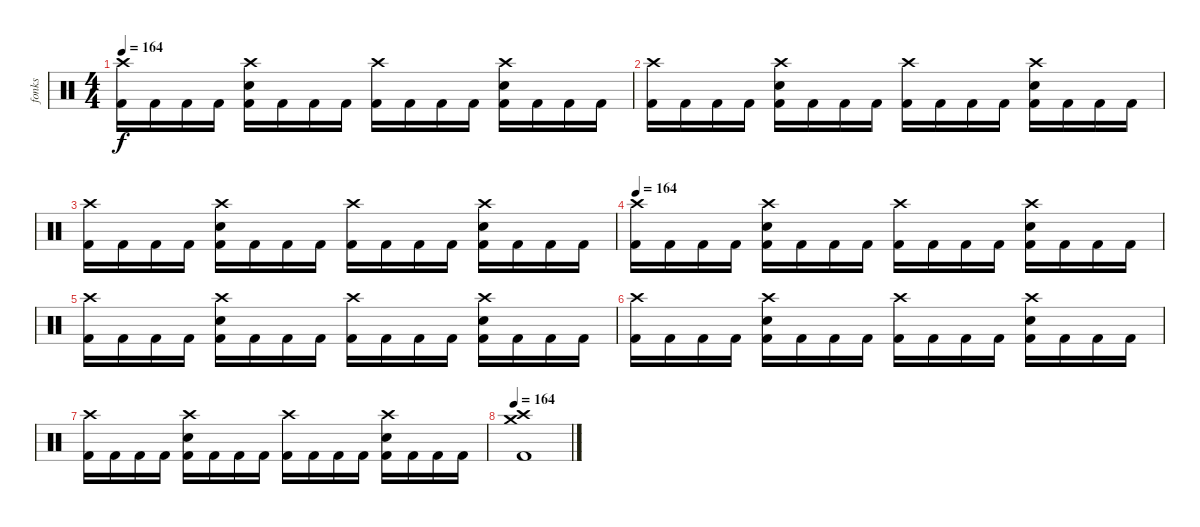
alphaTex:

\track ("fonks" "fonks") {instrument percussion}
\staff {score}
\articulation defaults
\ts (4 4)
\tempo 164
\clef neutral
\ks c
("Crash high (hit)" "Kick (hit) 2").16{dy f} "Kick (hit) 2".16 "Kick (hit) 2".16 "Kick (hit) 2".16 ("Crash high (hit)" "Snare (hit) 2" "Kick (hit) 2").16 "Kick (hit) 2".16 "Kick (hit) 2".16 "Kick (hit) 2".16 ("Crash high (hit)" "Kick (hit) 2").16 "Kick (hit) 2".16 "Kick (hit) 2".16 "Kick (hit) 2".16 ("Crash high (hit)" "Snare (hit) 2" "Kick (hit) 2").16 "Kick (hit) 2".16 "Kick (hit) 2".16 "Kick (hit) 2".16 |
("Crash high (hit)" "Kick (hit) 2").16 "Kick (hit) 2".16 "Kick (hit) 2".16 "Kick (hit) 2".16 ("Crash high (hit)" "Snare (hit) 2" "Kick (hit) 2").16 "Kick (hit) 2".16 "Kick (hit) 2".16 "Kick (hit) 2".16 ("Crash high (hit)" "Kick (hit) 2").16 "Kick (hit) 2".16 "Kick (hit) 2".16 "Kick (hit) 2".16 ("Crash high (hit)" "Snare (hit) 2" "Kick (hit) 2").16 "Kick (hit) 2".16 "Kick (hit) 2".16 "Kick (hit) 2".16 |
("Crash high (hit)" "Kick (hit) 2").16 "Kick (hit) 2".16 "Kick (hit) 2".16 "Kick (hit) 2".16 ("Crash high (hit)" "Snare (hit) 2" "Kick (hit) 2").16 "Kick (hit) 2".16 "Kick (hit) 2".16 "Kick (hit) 2".16 ("Crash high (hit)" "Kick (hit) 2").16 "Kick (hit) 2".16 "Kick (hit) 2".16 "Kick (hit) 2".16 ("Crash high (hit)" "Snare (hit) 2" "Kick (hit) 2").16 "Kick (hit) 2".16 "Kick (hit) 2".16 "Kick (hit) 2".16 |
\tempo 164
("Crash high (hit)" "Kick (hit) 2").16 "Kick (hit) 2".16 "Kick (hit) 2".16 "Kick (hit) 2".16 ("Crash high (hit)" "Snare (hit) 2" "Kick (hit) 2").16 "Kick (hit) 2".16 "Kick (hit) 2".16 "Kick (hit) 2".16 ("Crash high (hit)" "Kick (hit) 2").16 "Kick (hit) 2".16 "Kick (hit) 2".16 "Kick (hit) 2".16 ("Crash high (hit)" "Snare (hit) 2" "Kick (hit) 2").16 "Kick (hit) 2".16 "Kick (hit) 2".16 "Kick (hit) 2".16 |
("Crash high (hit)" "Kick (hit) 2").16 "Kick (hit) 2".16 "Kick (hit) 2".16 "Kick (hit) 2".16 ("Crash high (hit)" "Snare (hit) 2" "Kick (hit) 2").16 "Kick (hit) 2".16 "Kick (hit) 2".16 "Kick (hit) 2".16 ("Crash high (hit)" "Kick (hit) 2").16 "Kick (hit) 2".16 "Kick (hit) 2".16 "Kick (hit) 2".16 ("Crash high (hit)" "Snare (hit) 2" "Kick (hit) 2").16 "Kick (hit) 2".16 "Kick (hit) 2".16 "Kick (hit) 2".16 |
("Crash high (hit)" "Kick (hit) 2").16 "Kick (hit) 2".16 "Kick (hit) 2".16 "Kick (hit) 2".16 ("Crash high (hit)" "Snare (hit) 2" "Kick (hit) 2").16 "Kick (hit) 2".16 "Kick (hit) 2".16 "Kick (hit) 2".16 ("Crash high (hit)" "Kick (hit) 2").16 "Kick (hit) 2".16 "Kick (hit) 2".16 "Kick (hit) 2".16 ("Crash high (hit)" "Snare (hit) 2" "Kick (hit) 2").16 "Kick (hit) 2".16 "Kick (hit) 2".16 "Kick (hit) 2".16 |
("Crash high (hit)" "Kick (hit) 2").16 "Kick (hit) 2".16 "Kick (hit) 2".16 "Kick (hit) 2".16 ("Crash high (hit)" "Snare (hit) 2" "Kick (hit) 2").16 "Kick (hit) 2".16 "Kick (hit) 2".16 "Kick (hit) 2".16 ("Crash high (hit)" "Kick (hit) 2").16 "Kick (hit) 2".16 "Kick (hit) 2".16 "Kick (hit) 2".16 ("Crash high (hit)" "Snare (hit) 2" "Kick (hit) 2").16 "Kick (hit) 2".16 "Kick (hit) 2".16 "Kick (hit) 2".16 |
\tempo 164
("Crash medium (hit)" "Crash high (hit)" "Kick (hit) 2").1
